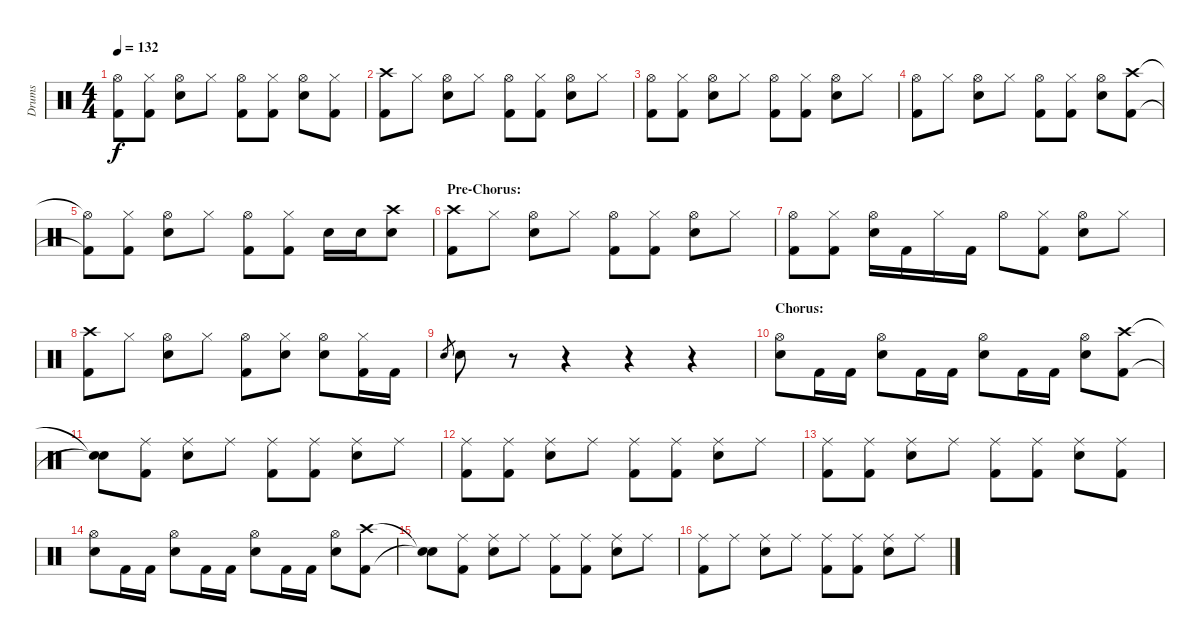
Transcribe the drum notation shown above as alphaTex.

\track ("Drums" "Drums") {instrument percussion}
\staff {score}
\articulation defaults
\ts (4 4)
\tempo 132
\clef neutral
\ks c
("Hi-Hat (open)"{t} "Kick (hit) 2"{t}).8{dy f} ("Hi-Hat (closed)" "Kick (hit) 2").8 ("Hi-Hat (open)" "Electric Snare (hit)").8 "Hi-Hat (closed)".8 ("Hi-Hat (open)" "Kick (hit) 2").8 ("Hi-Hat (closed)" "Kick (hit) 2").8 ("Hi-Hat (open)" "Electric Snare (hit)").8 ("Hi-Hat (closed)" "Kick (hit) 2").8 |
("Crash high (hit)" "Kick (hit) 2").8 "Hi-Hat (closed)".8 ("Hi-Hat (open)" "Electric Snare (hit)").8 "Hi-Hat (closed)".8 ("Hi-Hat (open)" "Kick (hit) 2").8 ("Hi-Hat (closed)" "Kick (hit) 2").8 ("Hi-Hat (open)" "Electric Snare (hit)").8 "Hi-Hat (closed)".8 |
("Hi-Hat (open)" "Kick (hit) 2").8 ("Hi-Hat (closed)" "Kick (hit) 2").8 ("Hi-Hat (open)" "Electric Snare (hit)").8 "Hi-Hat (closed)".8 ("Hi-Hat (open)" "Kick (hit) 2").8 ("Hi-Hat (closed)" "Kick (hit) 2").8 ("Hi-Hat (open)" "Electric Snare (hit)").8 "Hi-Hat (closed)".8 |
("Hi-Hat (open)" "Kick (hit) 2").8 "Hi-Hat (closed)".8 ("Hi-Hat (open)" "Electric Snare (hit)").8 "Hi-Hat (closed)".8 ("Hi-Hat (open)" "Kick (hit) 2").8 ("Hi-Hat (closed)" "Kick (hit) 2").8 ("Hi-Hat (open)" "Electric Snare (hit)").8 ("Crash high (hit)" "Kick (hit) 2").8 |
("Hi-Hat (open)"{t} "Kick (hit) 2"{t}).8 ("Hi-Hat (closed)" "Kick (hit) 2").8 ("Hi-Hat (open)" "Electric Snare (hit)").8 "Hi-Hat (closed)".8 ("Hi-Hat (open)" "Kick (hit) 2").8 ("Hi-Hat (closed)" "Kick (hit) 2").8 "Electric Snare (hit)".16 "Electric Snare (hit)".16 ("Crash high (hit)" "Electric Snare (hit)").8 |
\section ("" "Pre-Chorus:")
("Crash high (hit)" "Kick (hit) 2").8 "Hi-Hat (closed)".8 ("Hi-Hat (open)" "Electric Snare (hit)").8 "Hi-Hat (closed)".8 ("Hi-Hat (open)" "Kick (hit) 2").8 ("Hi-Hat (closed)" "Kick (hit) 2").8 ("Hi-Hat (open)" "Electric Snare (hit)").8 "Hi-Hat (closed)".8 |
("Hi-Hat (open)" "Kick (hit) 2").8 ("Hi-Hat (closed)" "Kick (hit) 2").8 ("Hi-Hat (open)" "Electric Snare (hit)").16 "Kick (hit) 2".16 "Hi-Hat (closed)".16 "Kick (hit) 2".16 "Hi-Hat (open)".8 ("Hi-Hat (closed)" "Kick (hit) 2").8 ("Hi-Hat (open)" "Electric Snare (hit)").8 "Hi-Hat (closed)".8 |
("Crash high (hit)" "Kick (hit) 2").8 "Hi-Hat (closed)".8 ("Hi-Hat (open)" "Electric Snare (hit)").8 "Hi-Hat (closed)".8 ("Hi-Hat (open)" "Kick (hit) 2").8 ("Hi-Hat (closed)" "Electric Snare (hit)").8 ("Hi-Hat (open)" "Electric Snare (hit)").8 ("Hi-Hat (closed)" "Kick (hit) 2").16 "Kick (hit) 2".16 |
"Electric Snare (hit)".8{gr} "Electric Snare (hit)".8 r.8 r.4 r.4 r.4 |
\section ("" "Chorus:")
("Hi-Hat (open)" "Electric Snare (hit)").8 "Kick (hit) 2".16 "Kick (hit) 2".16 ("Hi-Hat (open)" "Electric Snare (hit)").8 "Kick (hit) 2".16 "Kick (hit) 2".16 ("Hi-Hat (open)" "Electric Snare (hit)").8 "Kick (hit) 2".16 "Kick (hit) 2".16 ("Hi-Hat (open)" "Electric Snare (hit)").8 ("Crash high (hit)" "Kick (hit) 2").8 |
("Snare (hit)"{t} "Snare (hit)"{t}).8 ("Ride (middle)" "Kick (hit) 2").8 ("Ride (middle)" "Electric Snare (hit)").8 "Ride (middle)".8 ("Ride (middle)" "Kick (hit) 2").8 ("Ride (middle)" "Kick (hit) 2").8 ("Ride (middle)" "Electric Snare (hit)").8 "Ride (middle)".8 |
("Ride (middle)" "Kick (hit) 2").8 ("Ride (middle)" "Kick (hit) 2").8 ("Ride (middle)" "Electric Snare (hit)").8 "Ride (middle)".8 ("Ride (middle)" "Kick (hit) 2").8 ("Ride (middle)" "Kick (hit) 2").8 ("Ride (middle)" "Electric Snare (hit)").8 "Ride (middle)".8 |
("Ride (middle)" "Kick (hit) 2").8 ("Ride (middle)" "Kick (hit) 2").8 ("Ride (middle)" "Electric Snare (hit)").8 "Ride (middle)".8 ("Ride (middle)" "Kick (hit) 2").8 ("Ride (middle)" "Kick (hit) 2").8 ("Ride (middle)" "Electric Snare (hit)").8 ("Ride (middle)" "Kick (hit) 2").8 |
("Hi-Hat (open)" "Electric Snare (hit)").8 "Kick (hit) 2".16 "Kick (hit) 2".16 ("Hi-Hat (open)" "Electric Snare (hit)").8 "Kick (hit) 2".16 "Kick (hit) 2".16 ("Hi-Hat (open)" "Electric Snare (hit)").8 "Kick (hit) 2".16 "Kick (hit) 2".16 ("Hi-Hat (open)" "Electric Snare (hit)").8 ("Crash high (hit)" "Kick (hit) 2").8 |
("Snare (hit)"{t} "Snare (hit)"{t}).8 ("Ride (middle)" "Kick (hit) 2").8 ("Ride (middle)" "Electric Snare (hit)").8 "Ride (middle)".8 ("Ride (middle)" "Kick (hit) 2").8 ("Ride (middle)" "Kick (hit) 2").8 ("Ride (middle)" "Electric Snare (hit)").8 "Ride (middle)".8 |
("Ride (middle)" "Kick (hit) 2").8 "Ride (middle)".8 ("Ride (middle)" "Electric Snare (hit)").8 "Ride (middle)".8 ("Ride (middle)" "Kick (hit) 2").8 ("Ride (middle)" "Kick (hit) 2").8 ("Ride (middle)" "Electric Snare (hit)").8 "Ride (middle)".8
